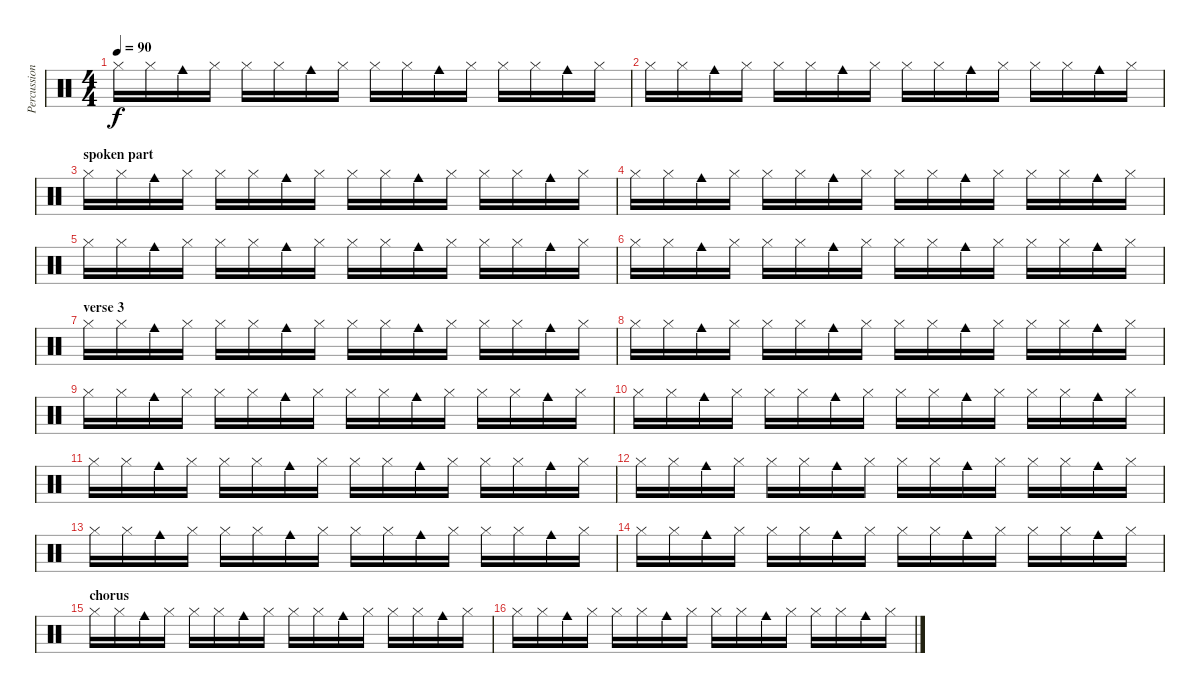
\track ("Percussion" "Percussion") {instrument percussion}
\staff {score}
\articulation defaults
\ts (4 4)
\tempo 90
\clef neutral
\ks c "Hi-Hat (closed)".16{dy f} "Hi-Hat (closed)".16 "Cowbell medium (hit)".16 "Hi-Hat (closed)".16 "Hi-Hat (closed)".16 "Hi-Hat (closed)".16 "Cowbell medium (hit)".16 "Hi-Hat (closed)".16 "Hi-Hat (closed)".16 "Hi-Hat (closed)".16 "Cowbell medium (hit)".16 "Hi-Hat (closed)".16 "Hi-Hat (closed)".16 "Hi-Hat (closed)".16 "Cowbell medium (hit)".16 "Hi-Hat (closed)".16
|
"Hi-Hat (closed)".16 "Hi-Hat (closed)".16 "Cowbell medium (hit)".16 "Hi-Hat (closed)".16 "Hi-Hat (closed)".16 "Hi-Hat (closed)".16 "Cowbell medium (hit)".16 "Hi-Hat (closed)".16 "Hi-Hat (closed)".16 "Hi-Hat (closed)".16 "Cowbell medium (hit)".16 "Hi-Hat (closed)".16 "Hi-Hat (closed)".16 "Hi-Hat (closed)".16 "Cowbell medium (hit)".16 "Hi-Hat (closed)".16 |
\section ("" "spoken part")
"Hi-Hat (closed)".16 "Hi-Hat (closed)".16 "Cowbell medium (hit)".16 "Hi-Hat (closed)".16 "Hi-Hat (closed)".16 "Hi-Hat (closed)".16 "Cowbell medium (hit)".16 "Hi-Hat (closed)".16 "Hi-Hat (closed)".16 "Hi-Hat (closed)".16 "Cowbell medium (hit)".16 "Hi-Hat (closed)".16 "Hi-Hat (closed)".16 "Hi-Hat (closed)".16 "Cowbell medium (hit)".16 "Hi-Hat (closed)".16 |
"Hi-Hat (closed)".16 "Hi-Hat (closed)".16 "Cowbell medium (hit)".16 "Hi-Hat (closed)".16 "Hi-Hat (closed)".16 "Hi-Hat (closed)".16 "Cowbell medium (hit)".16 "Hi-Hat (closed)".16 "Hi-Hat (closed)".16 "Hi-Hat (closed)".16 "Cowbell medium (hit)".16 "Hi-Hat (closed)".16 "Hi-Hat (closed)".16 "Hi-Hat (closed)".16 "Cowbell medium (hit)".16 "Hi-Hat (closed)".16 |
"Hi-Hat (closed)".16 "Hi-Hat (closed)".16 "Cowbell medium (hit)".16 "Hi-Hat (closed)".16 "Hi-Hat (closed)".16 "Hi-Hat (closed)".16 "Cowbell medium (hit)".16 "Hi-Hat (closed)".16 "Hi-Hat (closed)".16 "Hi-Hat (closed)".16 "Cowbell medium (hit)".16 "Hi-Hat (closed)".16 "Hi-Hat (closed)".16 "Hi-Hat (closed)".16 "Cowbell medium (hit)".16 "Hi-Hat (closed)".16 |
"Hi-Hat (closed)".16 "Hi-Hat (closed)".16 "Cowbell medium (hit)".16 "Hi-Hat (closed)".16 "Hi-Hat (closed)".16 "Hi-Hat (closed)".16 "Cowbell medium (hit)".16 "Hi-Hat (closed)".16 "Hi-Hat (closed)".16 "Hi-Hat (closed)".16 "Cowbell medium (hit)".16 "Hi-Hat (closed)".16 "Hi-Hat (closed)".16 "Hi-Hat (closed)".16 "Cowbell medium (hit)".16 "Hi-Hat (closed)".16 |
\section ("" "verse 3")
"Hi-Hat (closed)".16 "Hi-Hat (closed)".16 "Cowbell medium (hit)".16 "Hi-Hat (closed)".16 "Hi-Hat (closed)".16 "Hi-Hat (closed)".16 "Cowbell medium (hit)".16 "Hi-Hat (closed)".16 "Hi-Hat (closed)".16 "Hi-Hat (closed)".16 "Cowbell medium (hit)".16 "Hi-Hat (closed)".16 "Hi-Hat (closed)".16 "Hi-Hat (closed)".16 "Cowbell medium (hit)".16 "Hi-Hat (closed)".16 |
"Hi-Hat (closed)".16 "Hi-Hat (closed)".16 "Cowbell medium (hit)".16 "Hi-Hat (closed)".16 "Hi-Hat (closed)".16 "Hi-Hat (closed)".16 "Cowbell medium (hit)".16 "Hi-Hat (closed)".16 "Hi-Hat (closed)".16 "Hi-Hat (closed)".16 "Cowbell medium (hit)".16 "Hi-Hat (closed)".16 "Hi-Hat (closed)".16 "Hi-Hat (closed)".16 "Cowbell medium (hit)".16 "Hi-Hat (closed)".16 |
"Hi-Hat (closed)".16 "Hi-Hat (closed)".16 "Cowbell medium (hit)".16 "Hi-Hat (closed)".16 "Hi-Hat (closed)".16 "Hi-Hat (closed)".16 "Cowbell medium (hit)".16 "Hi-Hat (closed)".16 "Hi-Hat (closed)".16 "Hi-Hat (closed)".16 "Cowbell medium (hit)".16 "Hi-Hat (closed)".16 "Hi-Hat (closed)".16 "Hi-Hat (closed)".16 "Cowbell medium (hit)".16 "Hi-Hat (closed)".16 |
"Hi-Hat (closed)".16 "Hi-Hat (closed)".16 "Cowbell medium (hit)".16 "Hi-Hat (closed)".16 "Hi-Hat (closed)".16 "Hi-Hat (closed)".16 "Cowbell medium (hit)".16 "Hi-Hat (closed)".16 "Hi-Hat (closed)".16 "Hi-Hat (closed)".16 "Cowbell medium (hit)".16 "Hi-Hat (closed)".16 "Hi-Hat (closed)".16 "Hi-Hat (closed)".16 "Cowbell medium (hit)".16 "Hi-Hat (closed)".16 |
"Hi-Hat (closed)".16 "Hi-Hat (closed)".16 "Cowbell medium (hit)".16 "Hi-Hat (closed)".16 "Hi-Hat (closed)".16 "Hi-Hat (closed)".16 "Cowbell medium (hit)".16 "Hi-Hat (closed)".16 "Hi-Hat (closed)".16 "Hi-Hat (closed)".16 "Cowbell medium (hit)".16 "Hi-Hat (closed)".16 "Hi-Hat (closed)".16 "Hi-Hat (closed)".16 "Cowbell medium (hit)".16 "Hi-Hat (closed)".16 |
"Hi-Hat (closed)".16 "Hi-Hat (closed)".16 "Cowbell medium (hit)".16 "Hi-Hat (closed)".16 "Hi-Hat (closed)".16 "Hi-Hat (closed)".16 "Cowbell medium (hit)".16 "Hi-Hat (closed)".16 "Hi-Hat (closed)".16 "Hi-Hat (closed)".16 "Cowbell medium (hit)".16 "Hi-Hat (closed)".16 "Hi-Hat (closed)".16 "Hi-Hat (closed)".16 "Cowbell medium (hit)".16 "Hi-Hat (closed)".16 |
"Hi-Hat (closed)".16 "Hi-Hat (closed)".16 "Cowbell medium (hit)".16 "Hi-Hat (closed)".16 "Hi-Hat (closed)".16 "Hi-Hat (closed)".16 "Cowbell medium (hit)".16 "Hi-Hat (closed)".16 "Hi-Hat (closed)".16 "Hi-Hat (closed)".16 "Cowbell medium (hit)".16 "Hi-Hat (closed)".16 "Hi-Hat (closed)".16 "Hi-Hat (closed)".16 "Cowbell medium (hit)".16 "Hi-Hat (closed)".16 |
"Hi-Hat (closed)".16 "Hi-Hat (closed)".16 "Cowbell medium (hit)".16 "Hi-Hat (closed)".16 "Hi-Hat (closed)".16 "Hi-Hat (closed)".16 "Cowbell medium (hit)".16 "Hi-Hat (closed)".16 "Hi-Hat (closed)".16 "Hi-Hat (closed)".16 "Cowbell medium (hit)".16 "Hi-Hat (closed)".16 "Hi-Hat (closed)".16 "Hi-Hat (closed)".16 "Cowbell medium (hit)".16 "Hi-Hat (closed)".16 |
\section ("" "chorus")
"Hi-Hat (closed)".16 "Hi-Hat (closed)".16 "Cowbell medium (hit)".16 "Hi-Hat (closed)".16 "Hi-Hat (closed)".16 "Hi-Hat (closed)".16 "Cowbell medium (hit)".16 "Hi-Hat (closed)".16 "Hi-Hat (closed)".16 "Hi-Hat (closed)".16 "Cowbell medium (hit)".16 "Hi-Hat (closed)".16 "Hi-Hat (closed)".16 "Hi-Hat (closed)".16 "Cowbell medium (hit)".16 "Hi-Hat (closed)".16 |
"Hi-Hat (closed)".16 "Hi-Hat (closed)".16 "Cowbell medium (hit)".16 "Hi-Hat (closed)".16 "Hi-Hat (closed)".16 "Hi-Hat (closed)".16 "Cowbell medium (hit)".16 "Hi-Hat (closed)".16 "Hi-Hat (closed)".16 "Hi-Hat (closed)".16 "Cowbell medium (hit)".16 "Hi-Hat (closed)".16 "Hi-Hat (closed)".16 "Hi-Hat (closed)".16 "Cowbell medium (hit)".16 "Hi-Hat (closed)".16
